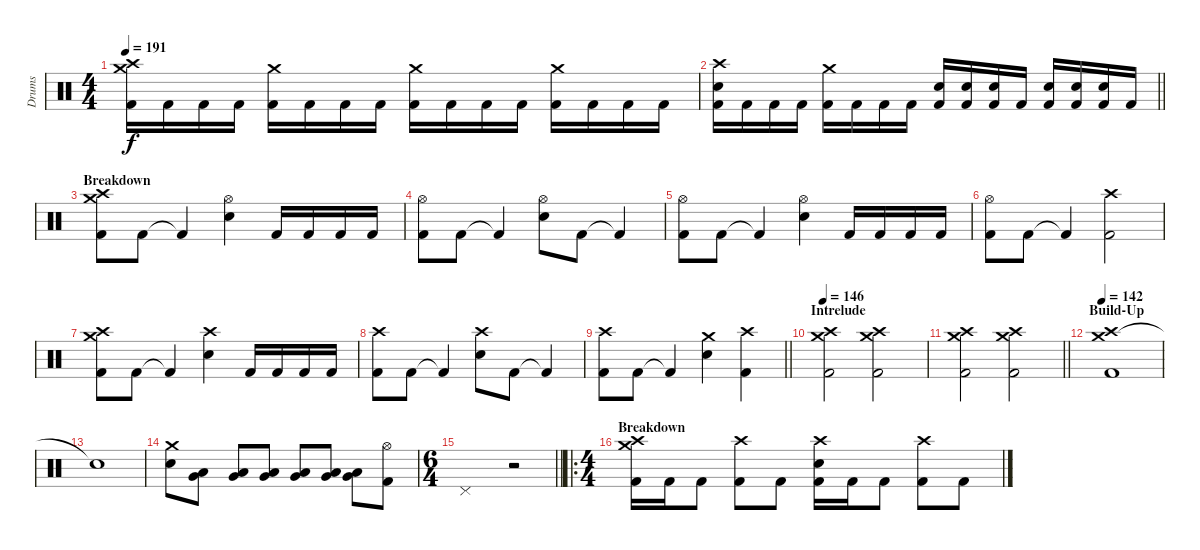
\track ("Drums" "Drums") {instrument percussion}
\staff {score}
\articulation defaults
\ts (4 4)
\tempo 191
\clef neutral
\ks c
("Crash medium (hit)" "Crash high (hit)" "Kick (hit) 2").16{dy f} "Kick (hit) 2".16 "Kick (hit) 2".16 "Kick (hit) 2".16 ("Crash medium (hit)" "Kick (hit) 2").16 "Kick (hit) 2".16 "Kick (hit) 2".16 "Kick (hit) 2".16 ("Crash medium (hit)" "Kick (hit) 2").16 "Kick (hit) 2".16 "Kick (hit) 2".16 "Kick (hit) 2".16 ("Crash medium (hit)" "Kick (hit) 2").16 "Kick (hit) 2".16 "Kick (hit) 2".16 "Kick (hit) 2".16 |
\barLineRight lightlight
("Crash high (hit)" "Electric Snare (hit)" "Kick (hit) 2").16 "Kick (hit) 2".16 "Kick (hit) 2".16 "Kick (hit) 2".16 ("Crash medium (hit)" "Kick (hit) 2").16 "Kick (hit) 2".16 "Kick (hit) 2".16 "Kick (hit) 2".16 ("Electric Snare (hit)" "Kick (hit) 2").16 ("Electric Snare (hit)" "Kick (hit) 2").16 ("Electric Snare (hit)" "Kick (hit) 2").16 "Kick (hit) 2".16 ("Electric Snare (hit)" "Kick (hit) 2").16 ("Electric Snare (hit)" "Kick (hit) 2").16 ("Electric Snare (hit)" "Kick (hit) 2").16 "Kick (hit) 2".16 |
\section ("" "Breakdown")
("Crash medium (hit)" "Crash high (hit)" "Kick (hit) 2").8 "Kick (hit) 2".8 "Kick (hit) 2"{t}.4 ("Hi-Hat (open)" "Electric Snare (hit)").4 "Kick (hit) 2".16 "Kick (hit) 2".16 "Kick (hit) 2".16 "Kick (hit) 2".16 |
("Hi-Hat (open)" "Kick (hit) 2").8 "Kick (hit) 2".8 "Kick (hit) 2"{t}.4 ("Hi-Hat (open)" "Electric Snare (hit)").8 "Kick (hit) 2".8 "Kick (hit) 2"{t}.4 |
("Hi-Hat (open)" "Kick (hit) 2").8 "Kick (hit) 2".8 "Kick (hit) 2"{t}.4 ("Hi-Hat (open)" "Electric Snare (hit)").4 "Kick (hit) 2".16 "Kick (hit) 2".16 "Kick (hit) 2".16 "Kick (hit) 2".16 |
("Hi-Hat (open)" "Kick (hit) 2").8 "Kick (hit) 2".8 "Kick (hit) 2"{t}.4 ("Crash high (hit)" "Kick (hit) 2").2 |
("Crash medium (hit)" "Crash high (hit)" "Kick (hit) 2").8 "Kick (hit) 2".8 "Kick (hit) 2"{t}.4 ("Crash high (hit)" "Electric Snare (hit)").4 "Kick (hit) 2".16 "Kick (hit) 2".16 "Kick (hit) 2".16 "Kick (hit) 2".16 |
("Crash high (hit)" "Kick (hit) 2").8 "Kick (hit) 2".8 "Kick (hit) 2"{t}.4 ("Crash high (hit)" "Electric Snare (hit)").8 "Kick (hit) 2".8 "Kick (hit) 2"{t}.4 |
\barLineRight lightlight
("Crash high (hit)" "Kick (hit) 2").8 "Kick (hit) 2".8 "Kick (hit) 2"{t}.4 ("Crash medium (hit)" "Electric Snare (hit)").4 ("Crash high (hit)" "Kick (hit) 2").4 |
\section ("" "Intrelude")
\tempo 146
("Crash medium (hit)" "Crash high (hit)" "Kick (hit) 2").2 ("Crash medium (hit)" "Crash high (hit)" "Kick (hit) 2").2 |
\barLineRight lightlight
("Crash medium (hit)" "Crash high (hit)" "Kick (hit) 2").2 ("Crash medium (hit)" "Crash high (hit)" "Kick (hit) 2").2 |
\section ("" "Build-Up")
\tempo 142
("Crash medium (hit)" "Crash high (hit)" "Kick (hit) 2").1 |
"Snare (hit)"{t}.1 |
("Crash medium (hit)" "Electric Snare (hit)").8 ("Very Low Tom (hit)" "Low Floor Tom (hit)").8 ("Very Low Tom (hit)" "Low Floor Tom (hit)").8 ("Very Low Tom (hit)" "Low Floor Tom (hit)").8 ("Very Low Tom (hit)" "Low Floor Tom (hit)").8 ("Very Low Tom (hit)" "Low Floor Tom (hit)").8 ("Very Low Tom (hit)" "Low Floor Tom (hit)").8 ("Hi-Hat (open)" "Kick (hit) 2").8 |
\ts (6 4)
\barLineRight lightlight "Pedal Hi-Hat (hit)".1
r.2 |
\ro
\ts (4 4)
\section ("" "Breakdown")
("Crash medium (hit)" "Crash high (hit)" "Kick (hit) 2").16 "Kick (hit) 2".16 "Kick (hit) 2".8 ("Crash high (hit)" "Kick (hit) 2").8 "Kick (hit) 2".8 ("Crash high (hit)" "Electric Snare (hit)" "Kick (hit) 2").16 "Kick (hit) 2".16 "Kick (hit) 2".8 ("Crash high (hit)" "Kick (hit) 2").8 "Kick (hit) 2".8
